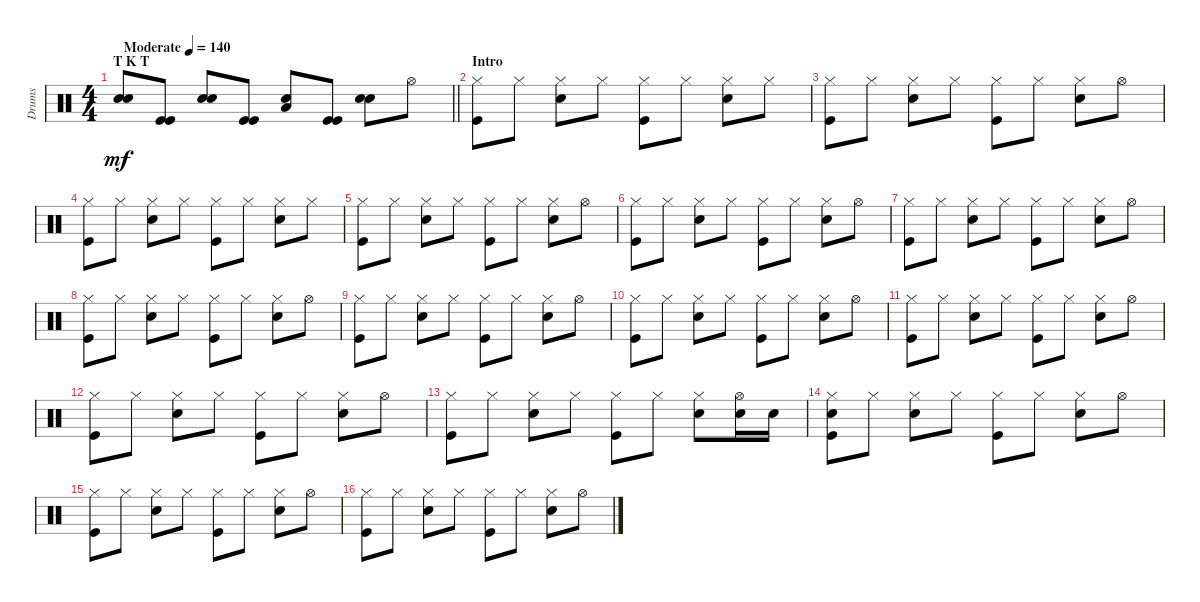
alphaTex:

\track ("Drums" "Drums") {instrument percussion bank 255}
\staff {score}
\articulation defaults
\ts (4 4)
\section ("" "T K T")
\tempo (140 "Moderate")
\clef neutral
\barLineRight lightlight
\ks c
("Snare (hit) 2" "Snare (hit) 2").8{dy mf} ("Kick (hit)" "Kick (hit)").8 ("Snare (hit) 2" "Snare (hit) 2").8 ("Kick (hit)" "Kick (hit)").8 ("Snare (hit) 2" "Low Tom (hit)").8 ("Kick (hit)" "Kick (hit)").8 ("Snare (hit) 2" "Snare (hit) 2").8 "Hi-Hat (open)".8 |
\section ("" "Intro")
("Hi-Hat (closed)" "Kick (hit)").8 "Hi-Hat (closed)".8 ("Hi-Hat (closed)" "Snare (hit) 2").8 "Hi-Hat (closed)".8 ("Hi-Hat (closed)" "Kick (hit)").8 "Hi-Hat (closed)".8 ("Hi-Hat (closed)" "Snare (hit) 2").8 "Hi-Hat (closed)".8 |
("Hi-Hat (closed)" "Kick (hit)").8 "Hi-Hat (closed)".8 ("Hi-Hat (closed)" "Snare (hit) 2").8 "Hi-Hat (closed)".8 ("Hi-Hat (closed)" "Kick (hit)").8 "Hi-Hat (closed)".8 ("Hi-Hat (closed)" "Snare (hit) 2").8 "Hi-Hat (open)".8 |
("Hi-Hat (closed)" "Kick (hit)").8 "Hi-Hat (closed)".8 ("Hi-Hat (closed)" "Snare (hit) 2").8 "Hi-Hat (closed)".8 ("Hi-Hat (closed)" "Kick (hit)").8 "Hi-Hat (closed)".8 ("Hi-Hat (closed)" "Snare (hit) 2").8 "Hi-Hat (closed)".8 |
("Hi-Hat (closed)" "Kick (hit)").8 "Hi-Hat (closed)".8 ("Hi-Hat (closed)" "Snare (hit) 2").8 "Hi-Hat (closed)".8 ("Hi-Hat (closed)" "Kick (hit)").8 "Hi-Hat (closed)".8 ("Hi-Hat (closed)" "Snare (hit) 2").8 "Hi-Hat (open)".8 |
("Hi-Hat (closed)" "Kick (hit)").8 "Hi-Hat (closed)".8 ("Hi-Hat (closed)" "Snare (hit) 2").8 "Hi-Hat (closed)".8 ("Hi-Hat (closed)" "Kick (hit)").8 "Hi-Hat (closed)".8 ("Hi-Hat (closed)" "Snare (hit) 2").8 "Hi-Hat (open)".8 |
("Hi-Hat (closed)" "Kick (hit)").8 "Hi-Hat (closed)".8 ("Hi-Hat (closed)" "Snare (hit) 2").8 "Hi-Hat (closed)".8 ("Hi-Hat (closed)" "Kick (hit)").8 "Hi-Hat (closed)".8 ("Hi-Hat (closed)" "Snare (hit) 2").8 "Hi-Hat (open)".8 |
("Hi-Hat (closed)" "Kick (hit)").8 "Hi-Hat (closed)".8 ("Hi-Hat (closed)" "Snare (hit) 2").8 "Hi-Hat (closed)".8 ("Hi-Hat (closed)" "Kick (hit)").8 "Hi-Hat (closed)".8 ("Hi-Hat (closed)" "Snare (hit) 2").8 "Hi-Hat (open)".8 |
("Hi-Hat (closed)" "Kick (hit)").8 "Hi-Hat (closed)".8 ("Hi-Hat (closed)" "Snare (hit) 2").8 "Hi-Hat (closed)".8 ("Hi-Hat (closed)" "Kick (hit)").8 "Hi-Hat (closed)".8 ("Hi-Hat (closed)" "Snare (hit) 2").8 "Hi-Hat (open)".8 |
("Hi-Hat (closed)" "Kick (hit)").8 "Hi-Hat (closed)".8 ("Hi-Hat (closed)" "Snare (hit) 2").8 "Hi-Hat (closed)".8 ("Hi-Hat (closed)" "Kick (hit)").8 "Hi-Hat (closed)".8 ("Hi-Hat (closed)" "Snare (hit) 2").8 "Hi-Hat (open)".8 |
("Hi-Hat (closed)" "Kick (hit)").8 "Hi-Hat (closed)".8 ("Hi-Hat (closed)" "Snare (hit) 2").8 "Hi-Hat (closed)".8 ("Hi-Hat (closed)" "Kick (hit)").8 "Hi-Hat (closed)".8 ("Hi-Hat (closed)" "Snare (hit) 2").8 "Hi-Hat (open)".8 |
("Hi-Hat (closed)" "Kick (hit)").8 "Hi-Hat (closed)".8 ("Hi-Hat (closed)" "Snare (hit) 2").8 "Hi-Hat (closed)".8 ("Hi-Hat (closed)" "Kick (hit)").8 "Hi-Hat (closed)".8 ("Hi-Hat (closed)" "Snare (hit) 2").8 "Hi-Hat (open)".8 |
("Hi-Hat (closed)" "Kick (hit)").8 "Hi-Hat (closed)".8 ("Hi-Hat (closed)" "Snare (hit) 2").8 "Hi-Hat (closed)".8 ("Hi-Hat (closed)" "Kick (hit)").8 "Hi-Hat (closed)".8 ("Hi-Hat (closed)" "Snare (hit) 2").8 ("Hi-Hat (open)" "Snare (hit) 2").16 "Snare (hit) 2".16 |
("Hi-Hat (closed)" "Snare (hit) 2" "Kick (hit)").8 "Hi-Hat (closed)".8 ("Hi-Hat (closed)" "Snare (hit) 2").8 "Hi-Hat (closed)".8 ("Hi-Hat (closed)" "Kick (hit)").8 "Hi-Hat (closed)".8 ("Hi-Hat (closed)" "Snare (hit) 2").8 "Hi-Hat (open)".8 |
("Hi-Hat (closed)" "Kick (hit)").8 "Hi-Hat (closed)".8 ("Hi-Hat (closed)" "Snare (hit) 2").8 "Hi-Hat (closed)".8 ("Hi-Hat (closed)" "Kick (hit)").8 "Hi-Hat (closed)".8 ("Hi-Hat (closed)" "Snare (hit) 2").8 "Hi-Hat (open)".8 |
("Hi-Hat (closed)" "Kick (hit)").8 "Hi-Hat (closed)".8 ("Hi-Hat (closed)" "Snare (hit) 2").8 "Hi-Hat (closed)".8 ("Hi-Hat (closed)" "Kick (hit)").8 "Hi-Hat (closed)".8 ("Hi-Hat (closed)" "Snare (hit) 2").8 "Hi-Hat (open)".8
